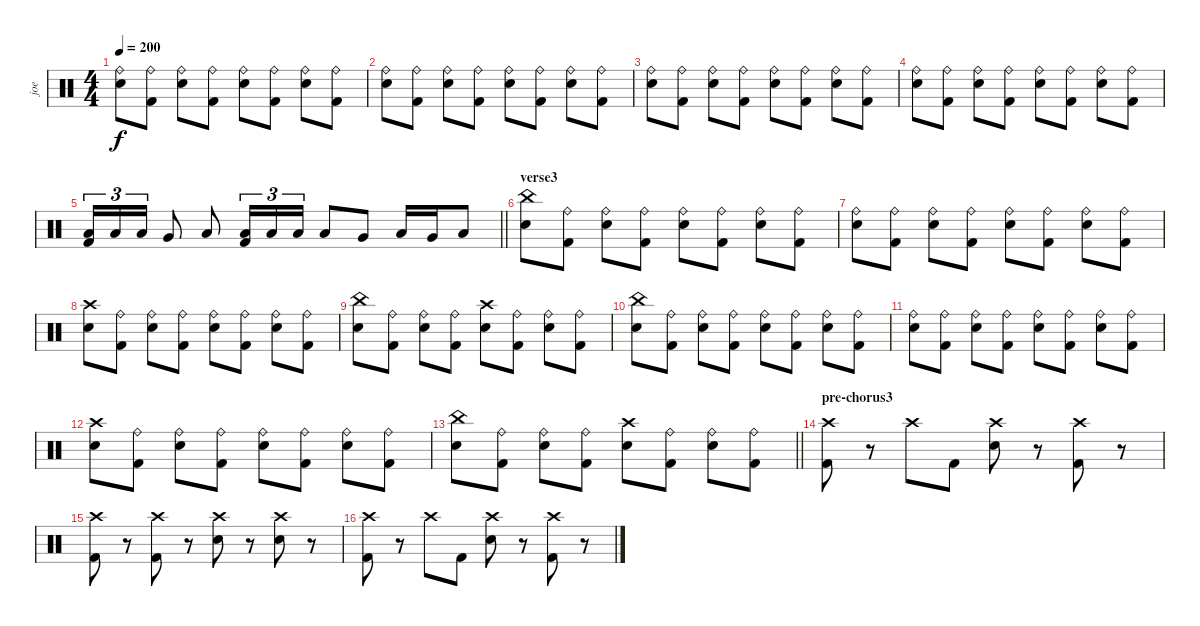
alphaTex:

\track ("joe" "joe") {instrument percussion}
\staff {score}
\articulation defaults
\ts (4 4)
\tempo 200
\clef neutral
\ks c
("Ride (bell)" "Snare (hit) 2").8{dy f} ("Ride (bell)" "Kick (hit) 2").8 ("Ride (bell)" "Snare (hit) 2").8 ("Ride (bell)" "Kick (hit) 2").8 ("Ride (bell)" "Snare (hit) 2").8 ("Ride (bell)" "Kick (hit) 2").8 ("Ride (bell)" "Snare (hit) 2").8 ("Ride (bell)" "Kick (hit) 2").8 |
("Ride (bell)" "Snare (hit) 2").8 ("Ride (bell)" "Kick (hit) 2").8 ("Ride (bell)" "Snare (hit) 2").8 ("Ride (bell)" "Kick (hit) 2").8 ("Ride (bell)" "Snare (hit) 2").8 ("Ride (bell)" "Kick (hit) 2").8 ("Ride (bell)" "Snare (hit) 2").8 ("Ride (bell)" "Kick (hit) 2").8 |
("Ride (bell)" "Snare (hit) 2").8 ("Ride (bell)" "Kick (hit) 2").8 ("Ride (bell)" "Snare (hit) 2").8 ("Ride (bell)" "Kick (hit) 2").8 ("Ride (bell)" "Snare (hit) 2").8 ("Ride (bell)" "Kick (hit) 2").8 ("Ride (bell)" "Snare (hit) 2").8 ("Ride (bell)" "Kick (hit) 2").8 |
("Ride (bell)" "Snare (hit) 2").8 ("Ride (bell)" "Kick (hit) 2").8 ("Ride (bell)" "Snare (hit) 2").8 ("Ride (bell)" "Kick (hit) 2").8 ("Ride (bell)" "Snare (hit) 2").8 ("Ride (bell)" "Kick (hit) 2").8 ("Ride (bell)" "Snare (hit) 2").8 ("Ride (bell)" "Kick (hit) 2").8 |
\barLineRight lightlight
("Low Tom (hit)" "Kick (hit) 2").16{tu (3 2)} "Low Tom (hit)".16{tu (3 2)} "Low Tom (hit)".16{tu (3 2)} "Very Low Tom (hit)".8 "Low Floor Tom (hit)".8 ("Low Tom (hit)" "Kick (hit) 2").16{tu (3 2)} "Low Tom (hit)".16{tu (3 2)} "Low Tom (hit)".16{tu (3 2)} "Low Floor Tom (hit)".8 "Very Low Tom (hit)".8 "Low Tom (hit)".16 "Very Low Tom (hit)".16 "Low Floor Tom (hit)".8 |
\section ("" "verse3")
("China (hit)" "Snare (hit) 2").8 ("Ride (bell)" "Kick (hit) 2").8 ("Ride (bell)" "Snare (hit) 2").8 ("Ride (bell)" "Kick (hit) 2").8 ("Ride (bell)" "Snare (hit) 2").8 ("Ride (bell)" "Kick (hit) 2").8 ("Ride (bell)" "Snare (hit) 2").8 ("Ride (bell)" "Kick (hit) 2").8 |
("Ride (bell)" "Snare (hit) 2").8 ("Ride (bell)" "Kick (hit) 2").8 ("Ride (bell)" "Snare (hit) 2").8 ("Ride (bell)" "Kick (hit) 2").8 ("Ride (bell)" "Snare (hit) 2").8 ("Ride (bell)" "Kick (hit) 2").8 ("Ride (bell)" "Snare (hit) 2").8 ("Ride (bell)" "Kick (hit) 2").8 |
("Crash high (hit)" "Snare (hit) 2").8 ("Ride (bell)" "Kick (hit) 2").8 ("Ride (bell)" "Snare (hit) 2").8 ("Ride (bell)" "Kick (hit) 2").8 ("Ride (bell)" "Snare (hit) 2").8 ("Ride (bell)" "Kick (hit) 2").8 ("Ride (bell)" "Snare (hit) 2").8 ("Ride (bell)" "Kick (hit) 2").8 |
("China (hit)" "Snare (hit) 2").8 ("Ride (bell)" "Kick (hit) 2").8 ("Ride (bell)" "Snare (hit) 2").8 ("Ride (bell)" "Kick (hit) 2").8 ("Crash high (hit)" "Snare (hit) 2").8 ("Ride (bell)" "Kick (hit) 2").8 ("Ride (bell)" "Snare (hit) 2").8 ("Ride (bell)" "Kick (hit) 2").8 |
("China (hit)" "Snare (hit) 2").8 ("Ride (bell)" "Kick (hit) 2").8 ("Ride (bell)" "Snare (hit) 2").8 ("Ride (bell)" "Kick (hit) 2").8 ("Ride (bell)" "Snare (hit) 2").8 ("Ride (bell)" "Kick (hit) 2").8 ("Ride (bell)" "Snare (hit) 2").8 ("Ride (bell)" "Kick (hit) 2").8 |
("Ride (bell)" "Snare (hit) 2").8 ("Ride (bell)" "Kick (hit) 2").8 ("Ride (bell)" "Snare (hit) 2").8 ("Ride (bell)" "Kick (hit) 2").8 ("Ride (bell)" "Snare (hit) 2").8 ("Ride (bell)" "Kick (hit) 2").8 ("Ride (bell)" "Snare (hit) 2").8 ("Ride (bell)" "Kick (hit) 2").8 |
("Crash high (hit)" "Snare (hit) 2").8 ("Ride (bell)" "Kick (hit) 2").8 ("Ride (bell)" "Snare (hit) 2").8 ("Ride (bell)" "Kick (hit) 2").8 ("Ride (bell)" "Snare (hit) 2").8 ("Ride (bell)" "Kick (hit) 2").8 ("Ride (bell)" "Snare (hit) 2").8 ("Ride (bell)" "Kick (hit) 2").8 |
\barLineRight lightlight
("China (hit)" "Snare (hit) 2").8 ("Ride (bell)" "Kick (hit) 2").8 ("Ride (bell)" "Snare (hit) 2").8 ("Ride (bell)" "Kick (hit) 2").8 ("Crash high (hit)" "Snare (hit) 2").8 ("Ride (bell)" "Kick (hit) 2").8 ("Ride (bell)" "Snare (hit) 2").8 ("Ride (bell)" "Kick (hit) 2").8 |
\section ("" "pre-chorus3")
("Crash high (hit)" "Kick (hit) 2").8 r.8 "Crash high (hit)".8 "Kick (hit) 2".8 ("Crash high (hit)" "Snare (hit) 2").8 r.8 ("Crash high (hit)" "Kick (hit) 2").8 r.8 |
("Crash high (hit)" "Kick (hit) 2").8 r.8 ("Crash high (hit)" "Kick (hit) 2").8 r.8 ("Crash high (hit)" "Snare (hit) 2").8 r.8 ("Crash high (hit)" "Snare (hit) 2").8 r.8 |
("Crash high (hit)" "Kick (hit) 2").8 r.8 "Crash high (hit)".8 "Kick (hit) 2".8 ("Crash high (hit)" "Snare (hit) 2").8 r.8 ("Crash high (hit)" "Kick (hit) 2").8 r.8
